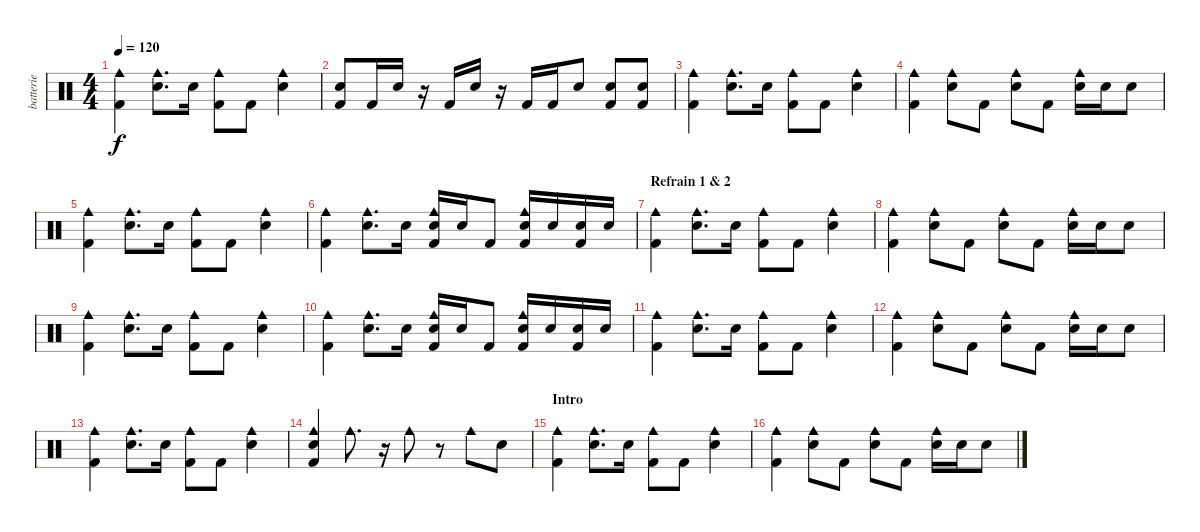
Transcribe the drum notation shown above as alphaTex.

\track ("batterie" "batterie") {instrument percussion}
\staff {score}
\articulation defaults
\ts (4 4)
\tempo 120
\clef neutral
\ks c
("Kick (hit) 2" "Cowbell medium (hit)").4{dy f} ("Electric Snare (hit)" "Cowbell medium (hit)").8{d} "Electric Snare (hit)".16 ("Kick (hit) 2" "Cowbell medium (hit)").8 "Kick (hit) 2".8 ("Electric Snare (hit)" "Cowbell medium (hit)").4 |
("Kick (hit) 2" "Electric Snare (hit)").8 "Kick (hit) 2".16 "Electric Snare (hit)".16 r.16 "Kick (hit) 2".16 "Electric Snare (hit)".16 r.16 "Kick (hit) 2".16 "Kick (hit) 2".16 "Electric Snare (hit)".8 ("Kick (hit) 2" "Electric Snare (hit)").8 ("Kick (hit) 2" "Electric Snare (hit)").8 |
("Kick (hit) 2" "Cowbell medium (hit)").4 ("Electric Snare (hit)" "Cowbell medium (hit)").8{d} "Electric Snare (hit)".16 ("Kick (hit) 2" "Cowbell medium (hit)").8 "Kick (hit) 2".8 ("Electric Snare (hit)" "Cowbell medium (hit)").4 |
("Kick (hit) 2" "Cowbell medium (hit)").4 ("Electric Snare (hit)" "Cowbell medium (hit)").8 "Kick (hit) 2".8 ("Electric Snare (hit)" "Cowbell medium (hit)").8 "Kick (hit) 2".8 ("Electric Snare (hit)" "Cowbell medium (hit)").16 "Electric Snare (hit)".16 "Electric Snare (hit)".8 |
("Kick (hit) 2" "Cowbell medium (hit)").4 ("Electric Snare (hit)" "Cowbell medium (hit)").8{d} "Electric Snare (hit)".16 ("Kick (hit) 2" "Cowbell medium (hit)").8 "Kick (hit) 2".8 ("Electric Snare (hit)" "Cowbell medium (hit)").4 |
("Kick (hit) 2" "Cowbell medium (hit)").4 ("Electric Snare (hit)" "Cowbell medium (hit)").8{d} "Electric Snare (hit)".16 ("Kick (hit) 2" "Electric Snare (hit)" "Cowbell medium (hit)").16 "Electric Snare (hit)".16 "Kick (hit) 2".8 ("Kick (hit) 2" "Electric Snare (hit)" "Cowbell medium (hit)").16 "Electric Snare (hit)".16 ("Kick (hit) 2" "Electric Snare (hit)").16 "Electric Snare (hit)".16 |
\section ("" "Refrain 1 & 2")
("Kick (hit) 2" "Cowbell medium (hit)").4 ("Electric Snare (hit)" "Cowbell medium (hit)").8{d} "Electric Snare (hit)".16 ("Kick (hit) 2" "Cowbell medium (hit)").8 "Kick (hit) 2".8 ("Electric Snare (hit)" "Cowbell medium (hit)").4 |
("Kick (hit) 2" "Cowbell medium (hit)").4 ("Electric Snare (hit)" "Cowbell medium (hit)").8 "Kick (hit) 2".8 ("Electric Snare (hit)" "Cowbell medium (hit)").8 "Kick (hit) 2".8 ("Electric Snare (hit)" "Cowbell medium (hit)").16 "Electric Snare (hit)".16 "Electric Snare (hit)".8 |
("Kick (hit) 2" "Cowbell medium (hit)").4 ("Electric Snare (hit)" "Cowbell medium (hit)").8{d} "Electric Snare (hit)".16 ("Kick (hit) 2" "Cowbell medium (hit)").8 "Kick (hit) 2".8 ("Electric Snare (hit)" "Cowbell medium (hit)").4 |
("Kick (hit) 2" "Cowbell medium (hit)").4 ("Electric Snare (hit)" "Cowbell medium (hit)").8{d} "Electric Snare (hit)".16 ("Kick (hit) 2" "Electric Snare (hit)" "Cowbell medium (hit)").16 "Electric Snare (hit)".16 "Kick (hit) 2".8 ("Kick (hit) 2" "Electric Snare (hit)" "Cowbell medium (hit)").16 "Electric Snare (hit)".16 ("Kick (hit) 2" "Electric Snare (hit)").16 "Electric Snare (hit)".16 |
("Kick (hit) 2" "Cowbell medium (hit)").4 ("Electric Snare (hit)" "Cowbell medium (hit)").8{d} "Electric Snare (hit)".16 ("Kick (hit) 2" "Cowbell medium (hit)").8 "Kick (hit) 2".8 ("Electric Snare (hit)" "Cowbell medium (hit)").4 |
("Kick (hit) 2" "Cowbell medium (hit)").4 ("Electric Snare (hit)" "Cowbell medium (hit)").8 "Kick (hit) 2".8 ("Electric Snare (hit)" "Cowbell medium (hit)").8 "Kick (hit) 2".8 ("Electric Snare (hit)" "Cowbell medium (hit)").16 "Electric Snare (hit)".16 "Electric Snare (hit)".8 |
("Kick (hit) 2" "Cowbell medium (hit)").4 ("Electric Snare (hit)" "Cowbell medium (hit)").8{d} "Electric Snare (hit)".16 ("Kick (hit) 2" "Cowbell medium (hit)").8 "Kick (hit) 2".8 ("Electric Snare (hit)" "Cowbell medium (hit)").4 |
("Kick (hit) 2" "Electric Snare (hit)" "Cowbell medium (hit)").4 "Cowbell medium (hit)".8{d} r.16 "Cowbell medium (hit)".8 r.8 "Cowbell medium (hit)".8 "Electric Snare (hit)".8 |
\section ("" "Intro")
("Kick (hit) 2" "Cowbell medium (hit)").4 ("Electric Snare (hit)" "Cowbell medium (hit)").8{d} "Electric Snare (hit)".16 ("Kick (hit) 2" "Cowbell medium (hit)").8 "Kick (hit) 2".8 ("Electric Snare (hit)" "Cowbell medium (hit)").4 |
("Kick (hit) 2" "Cowbell medium (hit)").4 ("Electric Snare (hit)" "Cowbell medium (hit)").8 "Kick (hit) 2".8 ("Electric Snare (hit)" "Cowbell medium (hit)").8 "Kick (hit) 2".8 ("Electric Snare (hit)" "Cowbell medium (hit)").16 "Electric Snare (hit)".16 "Electric Snare (hit)".8
